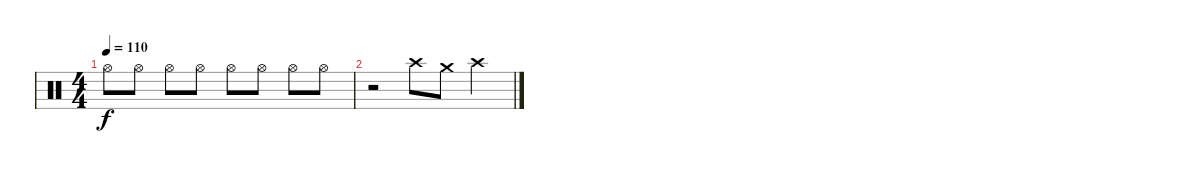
\track "" {instrument percussion}
\staff {score}
\articulation defaults
\ts (4 4)
\tempo 110
\clef neutral
\ks c "Hi-Hat (open)".8{dy f} "Hi-Hat (open)".8 "Hi-Hat (open)".8 "Hi-Hat (open)".8 "Hi-Hat (open)".8 "Hi-Hat (open)".8 "Hi-Hat (open)".8 "Hi-Hat (open)".8
|
r.2 "Crash high (hit)".8 "Crash medium (hit)".8 "Crash high (hit)".4
